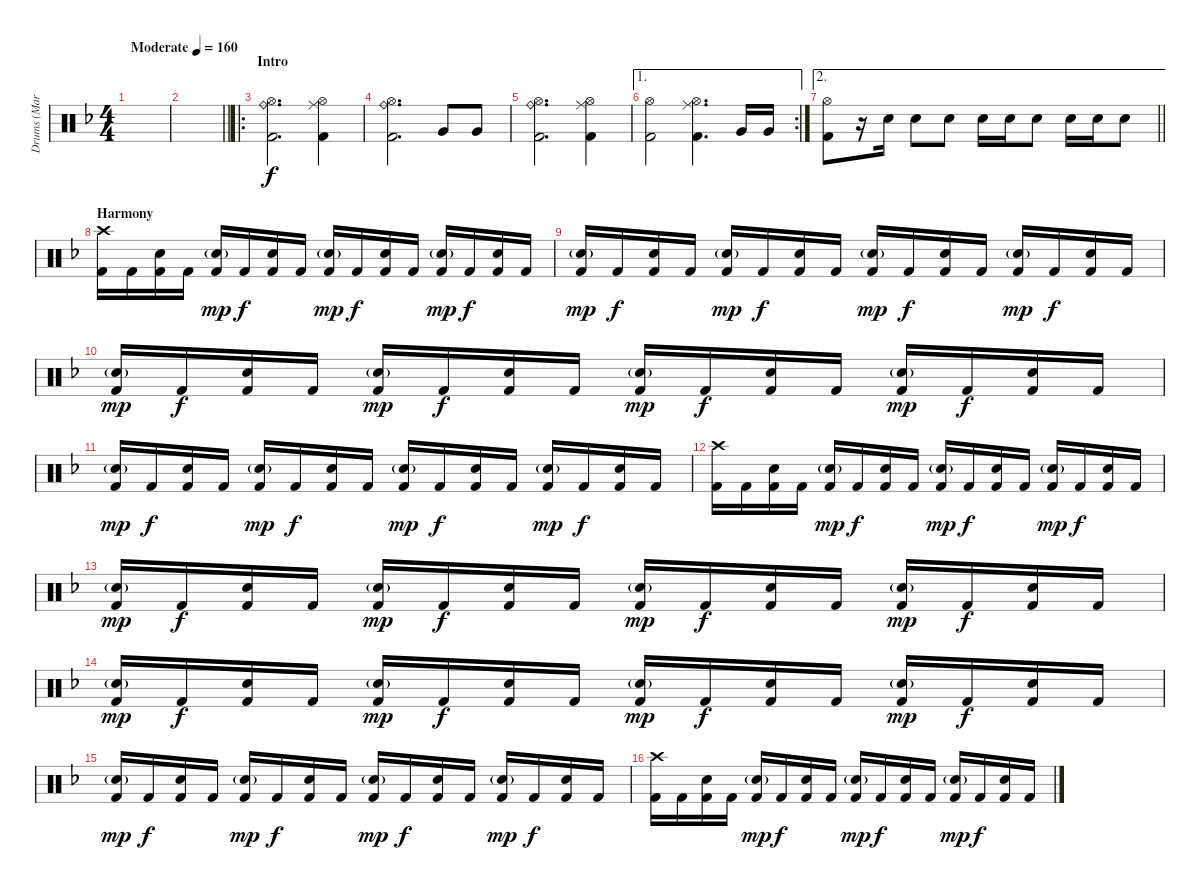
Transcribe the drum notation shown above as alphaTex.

\track ("Drums (Mark)" "Drums (Mar") {instrument percussion}
\staff {score}
\articulation defaults
\ts (4 4)
\tempo (160 "Moderate")
\clef neutral
\ks dminor
|
\barLineRight lightlight
|
\ro
\section ("" "Intro")
("Ride (bell)" "Hi-Hat (open)" "Kick (hit) 2").2{d} ("Ride (middle)" "Hi-Hat (open)" "Kick (hit) 2").4 |
("Ride (bell)" "Hi-Hat (open)" "Kick (hit) 2").2{d} "Very Low Tom (hit)".8 "Very Low Tom (hit)".8 |
("Ride (bell)" "Hi-Hat (open)" "Kick (hit) 2").2{d} ("Ride (middle)" "Hi-Hat (open)" "Kick (hit) 2").4 |
\ae 1
\rc 2
("Hi-Hat (open)" "Kick (hit) 2").2 ("Ride (middle)" "Hi-Hat (open)" "Kick (hit) 2").4{d} "Very Low Tom (hit)".16 "Very Low Tom (hit)".16 |
\ae 2
\barLineRight lightlight
("Hi-Hat (open)" "Kick (hit) 2").8 r.16 "Electric Snare (hit)".16 "Electric Snare (hit)".8 "Electric Snare (hit)".8 "Electric Snare (hit)".16 "Electric Snare (hit)".16 "Electric Snare (hit)".8 "Electric Snare (hit)".16 "Electric Snare (hit)".16 "Electric Snare (hit)".8 |
\section ("" "Harmony")
("Crash high (hit)" "Kick (hit) 2").16 "Kick (hit) 2".16 ("Electric Snare (hit)" "Kick (hit) 2").16 "Kick (hit) 2".16 ("Electric Snare (hit)"{g} "Kick (hit) 2").16{dy mp} "Kick (hit) 2".16{dy f} ("Electric Snare (hit)" "Kick (hit) 2").16 "Kick (hit) 2".16 ("Electric Snare (hit)"{g} "Kick (hit) 2").16{dy mp} "Kick (hit) 2".16{dy f} ("Electric Snare (hit)" "Kick (hit) 2").16 "Kick (hit) 2".16 ("Electric Snare (hit)"{g} "Kick (hit) 2").16{dy mp} "Kick (hit) 2".16{dy f} ("Electric Snare (hit)" "Kick (hit) 2").16 "Kick (hit) 2".16 |
("Electric Snare (hit)"{g} "Kick (hit) 2").16{dy mp} "Kick (hit) 2".16{dy f} ("Electric Snare (hit)" "Kick (hit) 2").16 "Kick (hit) 2".16 ("Electric Snare (hit)"{g} "Kick (hit) 2").16{dy mp} "Kick (hit) 2".16{dy f} ("Electric Snare (hit)" "Kick (hit) 2").16 "Kick (hit) 2".16 ("Electric Snare (hit)"{g} "Kick (hit) 2").16{dy mp} "Kick (hit) 2".16{dy f} ("Electric Snare (hit)" "Kick (hit) 2").16 "Kick (hit) 2".16 ("Electric Snare (hit)"{g} "Kick (hit) 2").16{dy mp} "Kick (hit) 2".16{dy f} ("Electric Snare (hit)" "Kick (hit) 2").16 "Kick (hit) 2".16 |
("Electric Snare (hit)"{g} "Kick (hit) 2").16{dy mp} "Kick (hit) 2".16{dy f} ("Electric Snare (hit)" "Kick (hit) 2").16 "Kick (hit) 2".16 ("Electric Snare (hit)"{g} "Kick (hit) 2").16{dy mp} "Kick (hit) 2".16{dy f} ("Electric Snare (hit)" "Kick (hit) 2").16 "Kick (hit) 2".16 ("Electric Snare (hit)"{g} "Kick (hit) 2").16{dy mp} "Kick (hit) 2".16{dy f} ("Electric Snare (hit)" "Kick (hit) 2").16 "Kick (hit) 2".16 ("Electric Snare (hit)"{g} "Kick (hit) 2").16{dy mp} "Kick (hit) 2".16{dy f} ("Electric Snare (hit)" "Kick (hit) 2").16 "Kick (hit) 2".16 |
("Electric Snare (hit)"{g} "Kick (hit) 2").16{dy mp} "Kick (hit) 2".16{dy f} ("Electric Snare (hit)" "Kick (hit) 2").16 "Kick (hit) 2".16 ("Electric Snare (hit)"{g} "Kick (hit) 2").16{dy mp} "Kick (hit) 2".16{dy f} ("Electric Snare (hit)" "Kick (hit) 2").16 "Kick (hit) 2".16 ("Electric Snare (hit)"{g} "Kick (hit) 2").16{dy mp} "Kick (hit) 2".16{dy f} ("Electric Snare (hit)" "Kick (hit) 2").16 "Kick (hit) 2".16 ("Electric Snare (hit)"{g} "Kick (hit) 2").16{dy mp} "Kick (hit) 2".16{dy f} ("Electric Snare (hit)" "Kick (hit) 2").16 "Kick (hit) 2".16 |
("Crash high (hit)" "Kick (hit) 2").16 "Kick (hit) 2".16 ("Electric Snare (hit)" "Kick (hit) 2").16 "Kick (hit) 2".16 ("Electric Snare (hit)"{g} "Kick (hit) 2").16{dy mp} "Kick (hit) 2".16{dy f} ("Electric Snare (hit)" "Kick (hit) 2").16 "Kick (hit) 2".16 ("Electric Snare (hit)"{g} "Kick (hit) 2").16{dy mp} "Kick (hit) 2".16{dy f} ("Electric Snare (hit)" "Kick (hit) 2").16 "Kick (hit) 2".16 ("Electric Snare (hit)"{g} "Kick (hit) 2").16{dy mp} "Kick (hit) 2".16{dy f} ("Electric Snare (hit)" "Kick (hit) 2").16 "Kick (hit) 2".16 |
("Electric Snare (hit)"{g} "Kick (hit) 2").16{dy mp} "Kick (hit) 2".16{dy f} ("Electric Snare (hit)" "Kick (hit) 2").16 "Kick (hit) 2".16 ("Electric Snare (hit)"{g} "Kick (hit) 2").16{dy mp} "Kick (hit) 2".16{dy f} ("Electric Snare (hit)" "Kick (hit) 2").16 "Kick (hit) 2".16 ("Electric Snare (hit)"{g} "Kick (hit) 2").16{dy mp} "Kick (hit) 2".16{dy f} ("Electric Snare (hit)" "Kick (hit) 2").16 "Kick (hit) 2".16 ("Electric Snare (hit)"{g} "Kick (hit) 2").16{dy mp} "Kick (hit) 2".16{dy f} ("Electric Snare (hit)" "Kick (hit) 2").16 "Kick (hit) 2".16 |
("Electric Snare (hit)"{g} "Kick (hit) 2").16{dy mp} "Kick (hit) 2".16{dy f} ("Electric Snare (hit)" "Kick (hit) 2").16 "Kick (hit) 2".16 ("Electric Snare (hit)"{g} "Kick (hit) 2").16{dy mp} "Kick (hit) 2".16{dy f} ("Electric Snare (hit)" "Kick (hit) 2").16 "Kick (hit) 2".16 ("Electric Snare (hit)"{g} "Kick (hit) 2").16{dy mp} "Kick (hit) 2".16{dy f} ("Electric Snare (hit)" "Kick (hit) 2").16 "Kick (hit) 2".16 ("Electric Snare (hit)"{g} "Kick (hit) 2").16{dy mp} "Kick (hit) 2".16{dy f} ("Electric Snare (hit)" "Kick (hit) 2").16 "Kick (hit) 2".16 |
("Electric Snare (hit)"{g} "Kick (hit) 2").16{dy mp} "Kick (hit) 2".16{dy f} ("Electric Snare (hit)" "Kick (hit) 2").16 "Kick (hit) 2".16 ("Electric Snare (hit)"{g} "Kick (hit) 2").16{dy mp} "Kick (hit) 2".16{dy f} ("Electric Snare (hit)" "Kick (hit) 2").16 "Kick (hit) 2".16 ("Electric Snare (hit)"{g} "Kick (hit) 2").16{dy mp} "Kick (hit) 2".16{dy f} ("Electric Snare (hit)" "Kick (hit) 2").16 "Kick (hit) 2".16 ("Electric Snare (hit)"{g} "Kick (hit) 2").16{dy mp} "Kick (hit) 2".16{dy f} ("Electric Snare (hit)" "Kick (hit) 2").16 "Kick (hit) 2".16 |
("Crash high (hit)" "Kick (hit) 2").16 "Kick (hit) 2".16 ("Electric Snare (hit)" "Kick (hit) 2").16 "Kick (hit) 2".16 ("Electric Snare (hit)"{g} "Kick (hit) 2").16{dy mp} "Kick (hit) 2".16{dy f} ("Electric Snare (hit)" "Kick (hit) 2").16 "Kick (hit) 2".16 ("Electric Snare (hit)"{g} "Kick (hit) 2").16{dy mp} "Kick (hit) 2".16{dy f} ("Electric Snare (hit)" "Kick (hit) 2").16 "Kick (hit) 2".16 ("Electric Snare (hit)"{g} "Kick (hit) 2").16{dy mp} "Kick (hit) 2".16{dy f} ("Electric Snare (hit)" "Kick (hit) 2").16 "Kick (hit) 2".16
